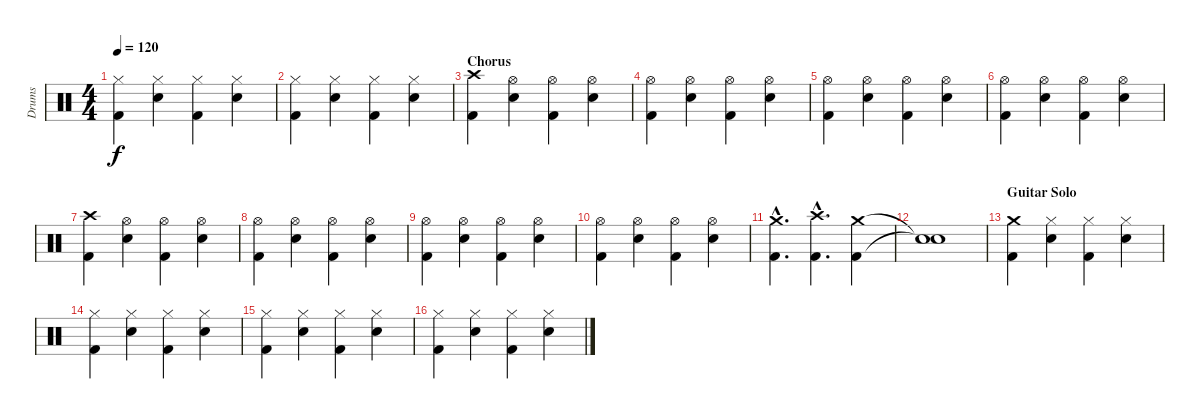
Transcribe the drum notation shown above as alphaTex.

\track ("Drums" "Drums") {instrument percussion}
\staff {score}
\articulation defaults
\ts (4 4)
\tempo 120
\clef neutral
\ks c
("Hi-Hat (closed)" "Kick (hit) 2").4{dy f} ("Hi-Hat (closed)" "Electric Snare (hit)").4 ("Hi-Hat (closed)" "Kick (hit) 2").4 ("Hi-Hat (closed)" "Electric Snare (hit)").4 |
("Hi-Hat (closed)" "Kick (hit) 2").4 ("Hi-Hat (closed)" "Electric Snare (hit)").4 ("Hi-Hat (closed)" "Kick (hit) 2").4 ("Hi-Hat (closed)" "Electric Snare (hit)").4 |
\section ("" "Chorus")
("Crash high (hit)" "Kick (hit) 2").4 ("Hi-Hat (open)" "Electric Snare (hit)").4 ("Hi-Hat (open)" "Kick (hit) 2").4 ("Hi-Hat (open)" "Electric Snare (hit)").4 |
("Hi-Hat (open)" "Kick (hit) 2").4 ("Hi-Hat (open)" "Electric Snare (hit)").4 ("Hi-Hat (open)" "Kick (hit) 2").4 ("Hi-Hat (open)" "Electric Snare (hit)").4 |
("Hi-Hat (open)" "Kick (hit) 2").4 ("Hi-Hat (open)" "Electric Snare (hit)").4 ("Hi-Hat (open)" "Kick (hit) 2").4 ("Hi-Hat (open)" "Electric Snare (hit)").4 |
("Hi-Hat (open)" "Kick (hit) 2").4 ("Hi-Hat (open)" "Electric Snare (hit)").4 ("Hi-Hat (open)" "Kick (hit) 2").4 ("Hi-Hat (open)" "Electric Snare (hit)").4 |
("Crash high (hit)" "Kick (hit) 2").4 ("Hi-Hat (open)" "Electric Snare (hit)").4 ("Hi-Hat (open)" "Kick (hit) 2").4 ("Hi-Hat (open)" "Electric Snare (hit)").4 |
("Hi-Hat (open)" "Kick (hit) 2").4 ("Hi-Hat (open)" "Electric Snare (hit)").4 ("Hi-Hat (open)" "Kick (hit) 2").4 ("Hi-Hat (open)" "Electric Snare (hit)").4 |
("Hi-Hat (open)" "Kick (hit) 2").4 ("Hi-Hat (open)" "Electric Snare (hit)").4 ("Hi-Hat (open)" "Kick (hit) 2").4 ("Hi-Hat (open)" "Electric Snare (hit)").4 |
("Hi-Hat (open)" "Kick (hit) 2").4 ("Hi-Hat (open)" "Electric Snare (hit)").4 ("Hi-Hat (open)" "Kick (hit) 2").4 ("Hi-Hat (open)" "Electric Snare (hit)").4 |
("Crash medium (hit)"{hac} "Kick (hit) 2"{hac}).4{d} ("Crash high (hit)"{hac} "Kick (hit) 2"{hac}).4{d} ("Crash medium (hit)" "Kick (hit) 2").4 |
("Snare (hit)"{t} "Snare (hit)"{t}).1 |
\section ("" "Guitar Solo")
("Crash medium (hit)" "Kick (hit) 2").4 ("Hi-Hat (closed)" "Electric Snare (hit)").4 ("Hi-Hat (closed)" "Kick (hit) 2").4 ("Hi-Hat (closed)" "Electric Snare (hit)").4 |
("Hi-Hat (closed)" "Kick (hit) 2").4 ("Hi-Hat (closed)" "Electric Snare (hit)").4 ("Hi-Hat (closed)" "Kick (hit) 2").4 ("Hi-Hat (closed)" "Electric Snare (hit)").4 |
("Hi-Hat (closed)" "Kick (hit) 2").4 ("Hi-Hat (closed)" "Electric Snare (hit)").4 ("Hi-Hat (closed)" "Kick (hit) 2").4 ("Hi-Hat (closed)" "Electric Snare (hit)").4 |
("Hi-Hat (closed)" "Kick (hit) 2").4 ("Hi-Hat (closed)" "Electric Snare (hit)").4 ("Hi-Hat (closed)" "Kick (hit) 2").4 ("Hi-Hat (closed)" "Electric Snare (hit)").4
